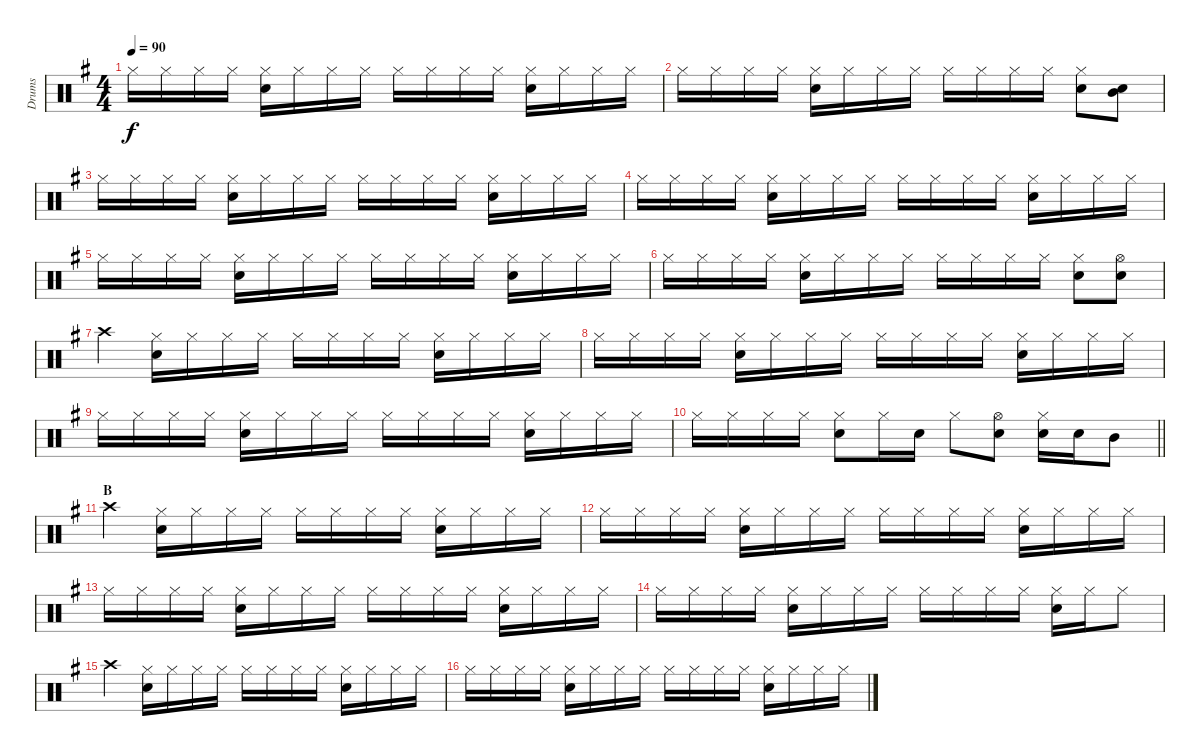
\track ("Drums" "Drums") {instrument percussion}
\staff {score}
\articulation defaults
\ts (4 4)
\tempo 90
\clef neutral
\ks g "Hi-Hat (closed)".16{dy f} "Hi-Hat (closed)".16 "Hi-Hat (closed)".16 "Hi-Hat (closed)".16
("Hi-Hat (closed)" "Snare (hit) 2").16 "Hi-Hat (closed)".16 "Hi-Hat (closed)".16 "Hi-Hat (closed)".16 "Hi-Hat (closed)".16 "Hi-Hat (closed)".16 "Hi-Hat (closed)".16 "Hi-Hat (closed)".16 ("Hi-Hat (closed)" "Snare (hit) 2").16 "Hi-Hat (closed)".16 "Hi-Hat (closed)".16 "Hi-Hat (closed)".16 |
"Hi-Hat (closed)".16 "Hi-Hat (closed)".16 "Hi-Hat (closed)".16 "Hi-Hat (closed)".16 ("Hi-Hat (closed)" "Snare (hit) 2").16 "Hi-Hat (closed)".16 "Hi-Hat (closed)".16 "Hi-Hat (closed)".16 "Hi-Hat (closed)".16 "Hi-Hat (closed)".16 "Hi-Hat (closed)".16 "Hi-Hat (closed)".16 ("Hi-Hat (closed)" "Snare (hit) 2").8 ("Mid Tom (hit)" "Snare (hit) 2").8 |
"Hi-Hat (closed)".16 "Hi-Hat (closed)".16 "Hi-Hat (closed)".16 "Hi-Hat (closed)".16 ("Hi-Hat (closed)" "Snare (hit) 2").16 "Hi-Hat (closed)".16 "Hi-Hat (closed)".16 "Hi-Hat (closed)".16 "Hi-Hat (closed)".16 "Hi-Hat (closed)".16 "Hi-Hat (closed)".16 "Hi-Hat (closed)".16 ("Hi-Hat (closed)" "Snare (hit) 2").16 "Hi-Hat (closed)".16 "Hi-Hat (closed)".16 "Hi-Hat (closed)".16 |
"Hi-Hat (closed)".16 "Hi-Hat (closed)".16 "Hi-Hat (closed)".16 "Hi-Hat (closed)".16 ("Hi-Hat (closed)" "Snare (hit) 2").16 "Hi-Hat (closed)".16 "Hi-Hat (closed)".16 "Hi-Hat (closed)".16 "Hi-Hat (closed)".16 "Hi-Hat (closed)".16 "Hi-Hat (closed)".16 "Hi-Hat (closed)".16 ("Hi-Hat (closed)" "Snare (hit) 2").16 "Hi-Hat (closed)".16 "Hi-Hat (closed)".16 "Hi-Hat (closed)".16 |
"Hi-Hat (closed)".16 "Hi-Hat (closed)".16 "Hi-Hat (closed)".16 "Hi-Hat (closed)".16 ("Hi-Hat (closed)" "Snare (hit) 2").16 "Hi-Hat (closed)".16 "Hi-Hat (closed)".16 "Hi-Hat (closed)".16 "Hi-Hat (closed)".16 "Hi-Hat (closed)".16 "Hi-Hat (closed)".16 "Hi-Hat (closed)".16 ("Hi-Hat (closed)" "Snare (hit) 2").16 "Hi-Hat (closed)".16 "Hi-Hat (closed)".16 "Hi-Hat (closed)".16 |
"Hi-Hat (closed)".16 "Hi-Hat (closed)".16 "Hi-Hat (closed)".16 "Hi-Hat (closed)".16 ("Hi-Hat (closed)" "Snare (hit) 2").16 "Hi-Hat (closed)".16 "Hi-Hat (closed)".16 "Hi-Hat (closed)".16 "Hi-Hat (closed)".16 "Hi-Hat (closed)".16 "Hi-Hat (closed)".16 "Hi-Hat (closed)".16 ("Hi-Hat (closed)" "Snare (hit) 2").8 ("Hi-Hat (open)" "Snare (hit) 2").8 |
"Crash high (hit)".4 ("Hi-Hat (closed)" "Snare (hit) 2").16 "Hi-Hat (closed)".16 "Hi-Hat (closed)".16 "Hi-Hat (closed)".16 "Hi-Hat (closed)".16 "Hi-Hat (closed)".16 "Hi-Hat (closed)".16 "Hi-Hat (closed)".16 ("Hi-Hat (closed)" "Snare (hit) 2").16 "Hi-Hat (closed)".16 "Hi-Hat (closed)".16 "Hi-Hat (closed)".16 |
"Hi-Hat (closed)".16 "Hi-Hat (closed)".16 "Hi-Hat (closed)".16 "Hi-Hat (closed)".16 ("Hi-Hat (closed)" "Snare (hit) 2").16 "Hi-Hat (closed)".16 "Hi-Hat (closed)".16 "Hi-Hat (closed)".16 "Hi-Hat (closed)".16 "Hi-Hat (closed)".16 "Hi-Hat (closed)".16 "Hi-Hat (closed)".16 ("Hi-Hat (closed)" "Snare (hit) 2").16 "Hi-Hat (closed)".16 "Hi-Hat (closed)".16 "Hi-Hat (closed)".16 |
"Hi-Hat (closed)".16 "Hi-Hat (closed)".16 "Hi-Hat (closed)".16 "Hi-Hat (closed)".16 ("Hi-Hat (closed)" "Snare (hit) 2").16 "Hi-Hat (closed)".16 "Hi-Hat (closed)".16 "Hi-Hat (closed)".16 "Hi-Hat (closed)".16 "Hi-Hat (closed)".16 "Hi-Hat (closed)".16 "Hi-Hat (closed)".16 ("Hi-Hat (closed)" "Snare (hit) 2").16 "Hi-Hat (closed)".16 "Hi-Hat (closed)".16 "Hi-Hat (closed)".16 |
\barLineRight lightlight "Hi-Hat (closed)".16 "Hi-Hat (closed)".16 "Hi-Hat (closed)".16 "Hi-Hat (closed)".16
("Hi-Hat (closed)" "Snare (hit) 2").8 "Hi-Hat (closed)".16 "Snare (hit) 2".16 "Hi-Hat (closed)".8 ("Hi-Hat (open)" "Snare (hit) 2").8 ("Hi-Hat (closed)" "Snare (hit) 2").16 "Snare (hit) 2".16 "Mid Tom (hit)".8 |
\section ("" "B")
"Crash high (hit)".4 ("Hi-Hat (closed)" "Snare (hit) 2").16 "Hi-Hat (closed)".16 "Hi-Hat (closed)".16 "Hi-Hat (closed)".16 "Hi-Hat (closed)".16 "Hi-Hat (closed)".16 "Hi-Hat (closed)".16 "Hi-Hat (closed)".16 ("Hi-Hat (closed)" "Snare (hit) 2").16 "Hi-Hat (closed)".16 "Hi-Hat (closed)".16 "Hi-Hat (closed)".16 |
"Hi-Hat (closed)".16 "Hi-Hat (closed)".16 "Hi-Hat (closed)".16 "Hi-Hat (closed)".16 ("Hi-Hat (closed)" "Snare (hit) 2").16 "Hi-Hat (closed)".16 "Hi-Hat (closed)".16 "Hi-Hat (closed)".16 "Hi-Hat (closed)".16 "Hi-Hat (closed)".16 "Hi-Hat (closed)".16 "Hi-Hat (closed)".16 ("Hi-Hat (closed)" "Snare (hit) 2").16 "Hi-Hat (closed)".16 "Hi-Hat (closed)".16 "Hi-Hat (closed)".16 |
"Hi-Hat (closed)".16 "Hi-Hat (closed)".16 "Hi-Hat (closed)".16 "Hi-Hat (closed)".16 ("Hi-Hat (closed)" "Snare (hit) 2").16 "Hi-Hat (closed)".16 "Hi-Hat (closed)".16 "Hi-Hat (closed)".16 "Hi-Hat (closed)".16 "Hi-Hat (closed)".16 "Hi-Hat (closed)".16 "Hi-Hat (closed)".16 ("Hi-Hat (closed)" "Snare (hit) 2").16 "Hi-Hat (closed)".16 "Hi-Hat (closed)".16 "Hi-Hat (closed)".16 |
"Hi-Hat (closed)".16 "Hi-Hat (closed)".16 "Hi-Hat (closed)".16 "Hi-Hat (closed)".16 ("Hi-Hat (closed)" "Snare (hit) 2").16 "Hi-Hat (closed)".16 "Hi-Hat (closed)".16 "Hi-Hat (closed)".16 "Hi-Hat (closed)".16 "Hi-Hat (closed)".16 "Hi-Hat (closed)".16 "Hi-Hat (closed)".16 ("Hi-Hat (closed)" "Snare (hit) 2").16 "Hi-Hat (closed)".16 "Hi-Hat (closed)".8 |
"Crash high (hit)".4 ("Hi-Hat (closed)" "Snare (hit) 2").16 "Hi-Hat (closed)".16 "Hi-Hat (closed)".16 "Hi-Hat (closed)".16 "Hi-Hat (closed)".16 "Hi-Hat (closed)".16 "Hi-Hat (closed)".16 "Hi-Hat (closed)".16 ("Hi-Hat (closed)" "Snare (hit) 2").16 "Hi-Hat (closed)".16 "Hi-Hat (closed)".16 "Hi-Hat (closed)".16 |
"Hi-Hat (closed)".16 "Hi-Hat (closed)".16 "Hi-Hat (closed)".16 "Hi-Hat (closed)".16 ("Hi-Hat (closed)" "Snare (hit) 2").16 "Hi-Hat (closed)".16 "Hi-Hat (closed)".16 "Hi-Hat (closed)".16 "Hi-Hat (closed)".16 "Hi-Hat (closed)".16 "Hi-Hat (closed)".16 "Hi-Hat (closed)".16 ("Hi-Hat (closed)" "Snare (hit) 2").16 "Hi-Hat (closed)".16 "Hi-Hat (closed)".16 "Hi-Hat (closed)".16
